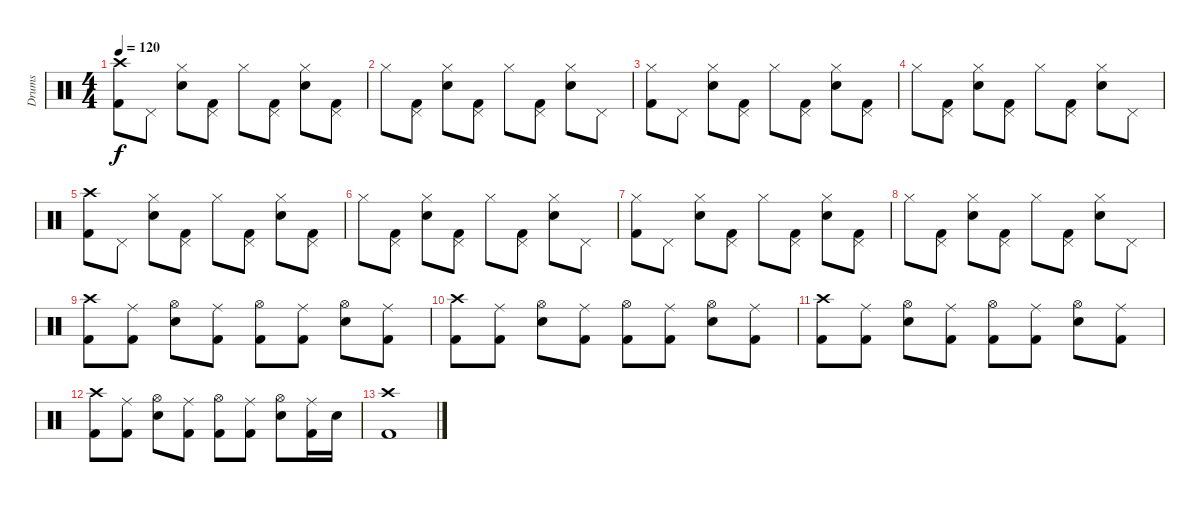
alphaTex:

\track ("Drums" "Drums") {instrument percussion}
\staff {score}
\articulation defaults
\ts (4 4)
\tempo 120
\clef neutral
\ks c
("Kick (hit) 2" "Crash high (hit)").8{dy f} "Pedal Hi-Hat (hit)".8 ("Electric Snare (hit)" "Hi-Hat (closed)").8 ("Kick (hit) 2" "Pedal Hi-Hat (hit)").8 "Hi-Hat (closed)".8 ("Kick (hit) 2" "Pedal Hi-Hat (hit)").8 ("Electric Snare (hit)" "Hi-Hat (closed)").8 ("Kick (hit) 2" "Pedal Hi-Hat (hit)").8 |
"Hi-Hat (closed)".8 ("Kick (hit) 2" "Pedal Hi-Hat (hit)").8 ("Electric Snare (hit)" "Hi-Hat (closed)").8 ("Kick (hit) 2" "Pedal Hi-Hat (hit)").8 "Hi-Hat (closed)".8 ("Kick (hit) 2" "Pedal Hi-Hat (hit)").8 ("Electric Snare (hit)" "Hi-Hat (closed)").8 "Pedal Hi-Hat (hit)".8 |
("Kick (hit) 2" "Hi-Hat (closed)").8 "Pedal Hi-Hat (hit)".8 ("Electric Snare (hit)" "Hi-Hat (closed)").8 ("Kick (hit) 2" "Pedal Hi-Hat (hit)").8 "Hi-Hat (closed)".8 ("Kick (hit) 2" "Pedal Hi-Hat (hit)").8 ("Electric Snare (hit)" "Hi-Hat (closed)").8 ("Kick (hit) 2" "Pedal Hi-Hat (hit)").8 |
"Hi-Hat (closed)".8 ("Kick (hit) 2" "Pedal Hi-Hat (hit)").8 ("Electric Snare (hit)" "Hi-Hat (closed)").8 ("Kick (hit) 2" "Pedal Hi-Hat (hit)").8 "Hi-Hat (closed)".8 ("Kick (hit) 2" "Pedal Hi-Hat (hit)").8 ("Electric Snare (hit)" "Hi-Hat (closed)").8 "Pedal Hi-Hat (hit)".8 |
("Kick (hit) 2" "Crash high (hit)").8 "Pedal Hi-Hat (hit)".8 ("Electric Snare (hit)" "Hi-Hat (closed)").8 ("Kick (hit) 2" "Pedal Hi-Hat (hit)").8 "Hi-Hat (closed)".8 ("Kick (hit) 2" "Pedal Hi-Hat (hit)").8 ("Electric Snare (hit)" "Hi-Hat (closed)").8 ("Kick (hit) 2" "Pedal Hi-Hat (hit)").8 |
"Hi-Hat (closed)".8 ("Kick (hit) 2" "Pedal Hi-Hat (hit)").8 ("Electric Snare (hit)" "Hi-Hat (closed)").8 ("Kick (hit) 2" "Pedal Hi-Hat (hit)").8 "Hi-Hat (closed)".8 ("Kick (hit) 2" "Pedal Hi-Hat (hit)").8 ("Electric Snare (hit)" "Hi-Hat (closed)").8 "Pedal Hi-Hat (hit)".8 |
("Kick (hit) 2" "Hi-Hat (closed)").8 "Pedal Hi-Hat (hit)".8 ("Electric Snare (hit)" "Hi-Hat (closed)").8 ("Kick (hit) 2" "Pedal Hi-Hat (hit)").8 "Hi-Hat (closed)".8 ("Kick (hit) 2" "Pedal Hi-Hat (hit)").8 ("Electric Snare (hit)" "Hi-Hat (closed)").8 ("Kick (hit) 2" "Pedal Hi-Hat (hit)").8 |
"Hi-Hat (closed)".8 ("Kick (hit) 2" "Pedal Hi-Hat (hit)").8 ("Electric Snare (hit)" "Hi-Hat (closed)").8 ("Kick (hit) 2" "Pedal Hi-Hat (hit)").8 "Hi-Hat (closed)".8 ("Kick (hit) 2" "Pedal Hi-Hat (hit)").8 ("Electric Snare (hit)" "Hi-Hat (closed)").8 "Pedal Hi-Hat (hit)".8 |
("Kick (hit) 2" "Crash high (hit)").8 ("Kick (hit) 2" "Ride (middle)").8 ("Electric Snare (hit)" "Hi-Hat (open)").8 ("Kick (hit) 2" "Ride (middle)").8 ("Kick (hit) 2" "Hi-Hat (open)").8 ("Kick (hit) 2" "Ride (middle)").8 ("Electric Snare (hit)" "Hi-Hat (open)").8 ("Kick (hit) 2" "Ride (middle)").8 |
("Kick (hit) 2" "Crash high (hit)").8 ("Kick (hit) 2" "Ride (middle)").8 ("Electric Snare (hit)" "Hi-Hat (open)").8 ("Kick (hit) 2" "Ride (middle)").8 ("Kick (hit) 2" "Hi-Hat (open)").8 ("Kick (hit) 2" "Ride (middle)").8 ("Electric Snare (hit)" "Hi-Hat (open)").8 ("Kick (hit) 2" "Ride (middle)").8 |
("Kick (hit) 2" "Crash high (hit)").8 ("Kick (hit) 2" "Ride (middle)").8 ("Electric Snare (hit)" "Hi-Hat (open)").8 ("Kick (hit) 2" "Ride (middle)").8 ("Kick (hit) 2" "Hi-Hat (open)").8 ("Kick (hit) 2" "Ride (middle)").8 ("Electric Snare (hit)" "Hi-Hat (open)").8 ("Kick (hit) 2" "Ride (middle)").8 |
("Kick (hit) 2" "Crash high (hit)").8 ("Kick (hit) 2" "Ride (middle)").8 ("Electric Snare (hit)" "Hi-Hat (open)").8 ("Kick (hit) 2" "Ride (middle)").8 ("Kick (hit) 2" "Hi-Hat (open)").8 ("Kick (hit) 2" "Ride (middle)").8 ("Electric Snare (hit)" "Hi-Hat (open)").8 ("Kick (hit) 2" "Ride (middle)").16 "Electric Snare (hit)".16 |
("Kick (hit) 2" "Crash high (hit)").1
